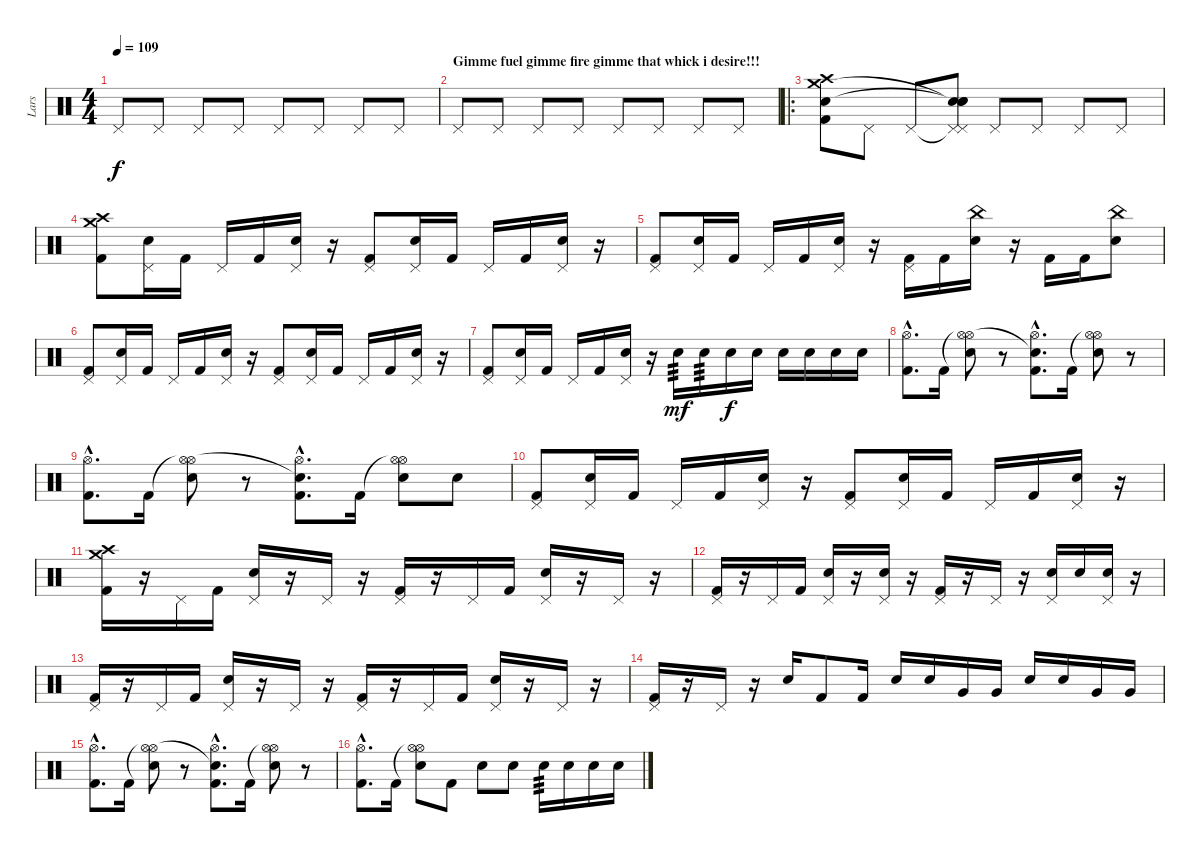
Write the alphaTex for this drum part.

\track ("Lars" "Lars") {instrument percussion}
\staff {score}
\articulation defaults
\ts (4 4)
\tempo 109
\clef neutral
\ks c "Pedal Hi-Hat (hit)".8{dy f} "Pedal Hi-Hat (hit)".8 "Pedal Hi-Hat (hit)".8 "Pedal Hi-Hat (hit)".8 "Pedal Hi-Hat (hit)".8 "Pedal Hi-Hat (hit)".8 "Pedal Hi-Hat (hit)".8 "Pedal Hi-Hat (hit)".8
|
\section ("" "Gimme fuel gimme fire gimme that whick i desire!!!")
"Pedal Hi-Hat (hit)".8 "Pedal Hi-Hat (hit)".8 "Pedal Hi-Hat (hit)".8 "Pedal Hi-Hat (hit)".8 "Pedal Hi-Hat (hit)".8 "Pedal Hi-Hat (hit)".8 "Pedal Hi-Hat (hit)".8 "Pedal Hi-Hat (hit)".8 |
\ro
("Crash high (hit)" "Crash medium (hit)" "Kick (hit) 2" "Electric Snare (hit)").8 "Pedal Hi-Hat (hit)".8 "Pedal Hi-Hat (hit)".8 ("Pedal Hi-Hat (hit)"{t} "Snare (hit)"{t} "Pedal Hi-Hat (hit)" "Snare (hit)"{t} "Snare (hit)").8 "Pedal Hi-Hat (hit)".8 "Pedal Hi-Hat (hit)".8 "Pedal Hi-Hat (hit)".8 "Pedal Hi-Hat (hit)".8 |
("Crash high (hit)" "Crash medium (hit)" "Kick (hit) 2").8 ("Pedal Hi-Hat (hit)" "Electric Snare (hit)").16 "Kick (hit) 2".16 "Pedal Hi-Hat (hit)".16 "Kick (hit) 2".16 ("Pedal Hi-Hat (hit)" "Electric Snare (hit)").16 r.16 ("Pedal Hi-Hat (hit)" "Kick (hit) 2").8 ("Pedal Hi-Hat (hit)" "Electric Snare (hit)").16 "Kick (hit) 2".16 "Pedal Hi-Hat (hit)".16 "Kick (hit) 2".16 ("Pedal Hi-Hat (hit)" "Electric Snare (hit)").16 r.16 |
("Pedal Hi-Hat (hit)" "Kick (hit) 2").8 ("Pedal Hi-Hat (hit)" "Electric Snare (hit)").16 "Kick (hit) 2".16 "Pedal Hi-Hat (hit)".16 "Kick (hit) 2".16 ("Pedal Hi-Hat (hit)" "Electric Snare (hit)").16 r.16 ("Pedal Hi-Hat (hit)" "Kick (hit) 2").16 "Kick (hit) 2".16 ("China (hit)" "Electric Snare (hit)").16 r.16 "Kick (hit) 2".16 "Kick (hit) 2".16 ("China (hit)" "Electric Snare (hit)").8 |
("Pedal Hi-Hat (hit)" "Kick (hit) 2").8 ("Pedal Hi-Hat (hit)" "Electric Snare (hit)").16 "Kick (hit) 2".16 "Pedal Hi-Hat (hit)".16 "Kick (hit) 2".16 ("Pedal Hi-Hat (hit)" "Electric Snare (hit)").16 r.16 ("Pedal Hi-Hat (hit)" "Kick (hit) 2").8 ("Pedal Hi-Hat (hit)" "Electric Snare (hit)").16 "Kick (hit) 2".16 "Pedal Hi-Hat (hit)".16 "Kick (hit) 2".16 ("Pedal Hi-Hat (hit)" "Electric Snare (hit)").16 r.16 |
("Pedal Hi-Hat (hit)" "Kick (hit) 2").8 ("Pedal Hi-Hat (hit)" "Electric Snare (hit)").16 "Kick (hit) 2".16 "Pedal Hi-Hat (hit)".16 "Kick (hit) 2".16 ("Pedal Hi-Hat (hit)" "Electric Snare (hit)").16 r.16 "Electric Snare (hit)".16{tp 3 dy mf} "Electric Snare (hit)".16{tp 3} "Electric Snare (hit)".16{dy f} "Electric Snare (hit)".16 "Electric Snare (hit)".16 "Electric Snare (hit)".16 "Electric Snare (hit)".16 "Electric Snare (hit)".16 |
("Hi-Hat (open)"{hac} "Kick (hit) 2"{hac}).8{d} "Kick (hit) 2".16 ("Hi-Hat (open)"{t} "Hi-Hat (open)" "Electric Snare (hit)").8 r.8 ("Hi-Hat (open)"{hac} "Snare (hit)"{hac t} "Kick (hit) 2"{hac}).8{d} "Kick (hit) 2".16 ("Hi-Hat (open)"{t} "Hi-Hat (open)" "Electric Snare (hit)").8 r.8 |
("Hi-Hat (open)"{hac} "Kick (hit) 2"{hac}).8{d} "Kick (hit) 2".16 ("Hi-Hat (open)"{t} "Hi-Hat (open)" "Electric Snare (hit)").8 r.8 ("Hi-Hat (open)"{hac} "Snare (hit)"{hac t} "Kick (hit) 2"{hac}).8{d} "Kick (hit) 2".16 ("Hi-Hat (open)"{t} "Hi-Hat (open)" "Electric Snare (hit)").8 "Electric Snare (hit)".8 |
("Pedal Hi-Hat (hit)" "Kick (hit) 2").8 ("Pedal Hi-Hat (hit)" "Electric Snare (hit)").16 "Kick (hit) 2".16 "Pedal Hi-Hat (hit)".16 "Kick (hit) 2".16 ("Pedal Hi-Hat (hit)" "Electric Snare (hit)").16 r.16 ("Pedal Hi-Hat (hit)" "Kick (hit) 2").8 ("Pedal Hi-Hat (hit)" "Electric Snare (hit)").16 "Kick (hit) 2".16 "Pedal Hi-Hat (hit)".16 "Kick (hit) 2".16 ("Pedal Hi-Hat (hit)" "Electric Snare (hit)").16 r.16 |
("Crash medium (hit)" "Crash high (hit)" "Kick (hit) 2").16 r.16 "Pedal Hi-Hat (hit)".16 "Kick (hit) 2".16 ("Pedal Hi-Hat (hit)" "Electric Snare (hit)").16 r.16 "Pedal Hi-Hat (hit)".16 r.16 ("Pedal Hi-Hat (hit)" "Kick (hit) 2").16 r.16 "Pedal Hi-Hat (hit)".16 "Kick (hit) 2".16 ("Pedal Hi-Hat (hit)" "Electric Snare (hit)").16 r.16 "Pedal Hi-Hat (hit)".16 r.16 |
("Pedal Hi-Hat (hit)" "Kick (hit) 2").16 r.16 "Pedal Hi-Hat (hit)".16 "Kick (hit) 2".16 ("Pedal Hi-Hat (hit)" "Electric Snare (hit)").16 r.16 ("Pedal Hi-Hat (hit)" "Electric Snare (hit)").16 r.16 ("Pedal Hi-Hat (hit)" "Kick (hit) 2").16 r.16 "Pedal Hi-Hat (hit)".16 r.16 ("Pedal Hi-Hat (hit)" "Electric Snare (hit)").16 "Electric Snare (hit)".16 ("Pedal Hi-Hat (hit)" "Electric Snare (hit)").16 r.16 |
("Pedal Hi-Hat (hit)" "Kick (hit) 2").16 r.16 "Pedal Hi-Hat (hit)".16 "Kick (hit) 2".16 ("Pedal Hi-Hat (hit)" "Electric Snare (hit)").16 r.16 "Pedal Hi-Hat (hit)".16 r.16 ("Pedal Hi-Hat (hit)" "Kick (hit) 2").16 r.16 "Pedal Hi-Hat (hit)".16 "Kick (hit) 2".16 ("Pedal Hi-Hat (hit)" "Electric Snare (hit)").16 r.16 "Pedal Hi-Hat (hit)".16 r.16 |
("Pedal Hi-Hat (hit)" "Kick (hit) 2").16 r.16 "Pedal Hi-Hat (hit)".16 r.16 "Electric Snare (hit)".16 "Kick (hit) 2".8 "Kick (hit) 2".16 "Electric Snare (hit)".16 "Electric Snare (hit)".16 "Very Low Tom (hit)".16 "Very Low Tom (hit)".16 "Electric Snare (hit)".16 "Electric Snare (hit)".16 "Very Low Tom (hit)".16 "Very Low Tom (hit)".16 |
("Hi-Hat (open)"{hac} "Kick (hit) 2"{hac}).8{d} "Kick (hit) 2".16 ("Hi-Hat (open)"{t} "Hi-Hat (open)" "Electric Snare (hit)").8 r.8 ("Hi-Hat (open)"{hac} "Snare (hit)"{hac t} "Kick (hit) 2"{hac}).8{d} "Kick (hit) 2".16 ("Hi-Hat (open)"{t} "Hi-Hat (open)" "Electric Snare (hit)").8 r.8 |
("Hi-Hat (open)"{hac} "Kick (hit) 2"{hac}).8{d} "Kick (hit) 2".16 ("Hi-Hat (open)"{t} "Hi-Hat (open)" "Electric Snare (hit)").8 "Kick (hit) 2".8 "Electric Snare (hit)".8 "Electric Snare (hit)".8 "Electric Snare (hit)".16{tp 3} "Electric Snare (hit)".16 "Electric Snare (hit)".16 "Electric Snare (hit)".16
